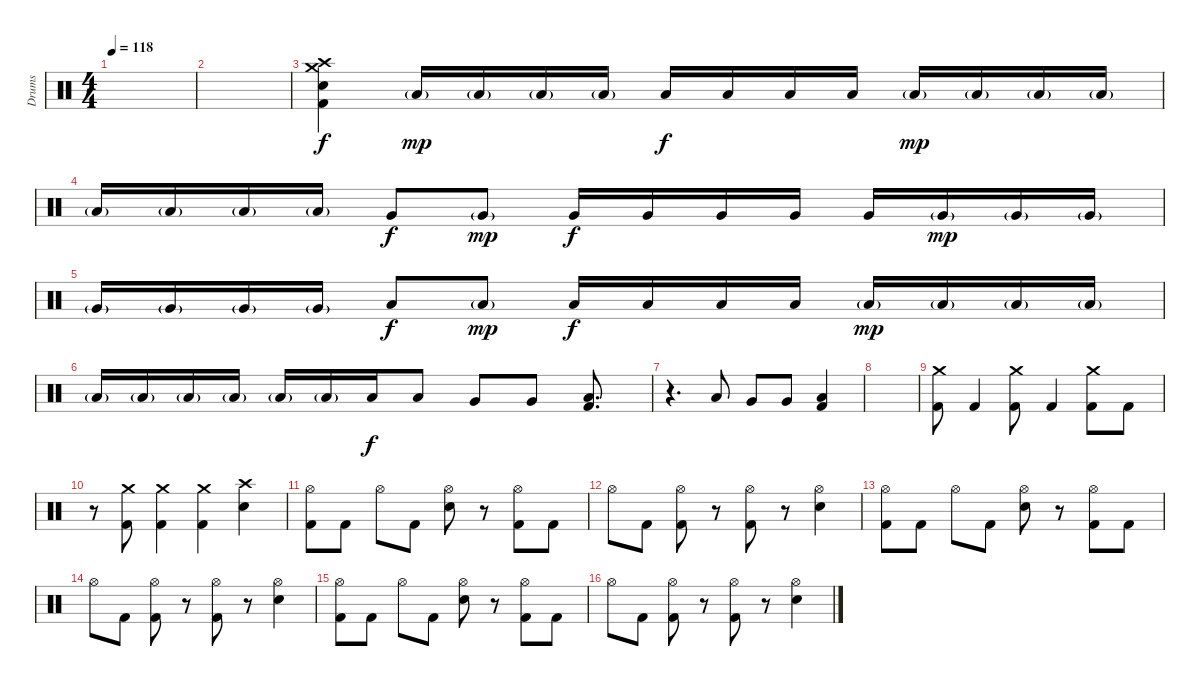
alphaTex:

\track ("Drums" "Drums") {instrument percussion}
\staff {score}
\articulation defaults
\ts (4 4)
\tempo 118
\clef neutral
\ks c
|
|
("Crash medium (hit)" "Crash high (hit)" "Electric Snare (hit)" "Kick (hit) 2").4 "Low Tom (hit)"{g}.16{dy mp} "Low Tom (hit)"{g}.16 "Low Tom (hit)"{g}.16 "Low Tom (hit)"{g}.16 "Low Tom (hit)".16{dy f} "Low Tom (hit)".16 "Low Tom (hit)".16 "Low Tom (hit)".16 "Low Tom (hit)"{g}.16{dy mp} "Low Tom (hit)"{g}.16 "Low Tom (hit)"{g}.16 "Low Tom (hit)"{g}.16 |
"Low Tom (hit)"{g}.16 "Low Tom (hit)"{g}.16 "Low Tom (hit)"{g}.16 "Low Tom (hit)"{g}.16 "Very Low Tom (hit)".8{dy f} "Very Low Tom (hit)"{g}.8{dy mp} "Very Low Tom (hit)".16{dy f} "Very Low Tom (hit)".16 "Very Low Tom (hit)".16 "Very Low Tom (hit)".16 "Very Low Tom (hit)".16 "Very Low Tom (hit)"{g}.16{dy mp} "Very Low Tom (hit)"{g}.16 "Very Low Tom (hit)"{g}.16 |
"Very Low Tom (hit)"{g}.16 "Very Low Tom (hit)"{g}.16 "Very Low Tom (hit)"{g}.16 "Very Low Tom (hit)"{g}.16 "Low Floor Tom (hit)".8{dy f} "Low Floor Tom (hit)"{g}.8{dy mp} "Low Floor Tom (hit)".16{dy f} "Low Floor Tom (hit)".16 "Low Floor Tom (hit)".16 "Low Floor Tom (hit)".16 "Low Floor Tom (hit)"{g}.16{dy mp} "Low Floor Tom (hit)"{g}.16 "Low Floor Tom (hit)"{g}.16 "Low Floor Tom (hit)"{g}.16 |
"Low Floor Tom (hit)"{g}.16 "Low Floor Tom (hit)"{g}.16 "Low Floor Tom (hit)"{g}.16 "Low Floor Tom (hit)"{g}.16 "Low Floor Tom (hit)"{g}.16 "Low Floor Tom (hit)"{g}.16 "Low Floor Tom (hit)".16{dy f} "Low Tom (hit)".8 "Very Low Tom (hit)".8 "Very Low Tom (hit)".8 ("Kick (hit) 2" "Low Floor Tom (hit)").8{d} |
r.4{d} "Low Tom (hit)".8 "Very Low Tom (hit)".8 "Very Low Tom (hit)".8 ("Kick (hit) 2" "Low Floor Tom (hit)").4 |
|
("Crash medium (hit)" "Kick (hit) 2").8 "Kick (hit) 2".4 ("Crash medium (hit)" "Kick (hit) 2").8 "Kick (hit) 2".4 ("Crash medium (hit)" "Kick (hit) 2").8 "Kick (hit) 2".8 |
r.8 ("Crash medium (hit)" "Kick (hit) 2").8 ("Crash medium (hit)" "Kick (hit) 2").4 ("Crash medium (hit)" "Kick (hit) 2").4 ("Crash high (hit)" "Electric Snare (hit)").4 |
("Hi-Hat (open)" "Kick (hit) 2").8 "Kick (hit) 2".8 "Hi-Hat (open)".8 "Kick (hit) 2".8 ("Hi-Hat (open)" "Electric Snare (hit)").8 r.8 ("Hi-Hat (open)" "Kick (hit) 2").8 "Kick (hit) 2".8 |
"Hi-Hat (open)".8 "Kick (hit) 2".8 ("Hi-Hat (open)" "Kick (hit) 2").8 r.8 ("Hi-Hat (open)" "Kick (hit) 2").8 r.8 ("Hi-Hat (open)" "Electric Snare (hit)").4 |
("Hi-Hat (open)" "Kick (hit) 2").8 "Kick (hit) 2".8 "Hi-Hat (open)".8 "Kick (hit) 2".8 ("Hi-Hat (open)" "Electric Snare (hit)").8 r.8 ("Hi-Hat (open)" "Kick (hit) 2").8 "Kick (hit) 2".8 |
"Hi-Hat (open)".8 "Kick (hit) 2".8 ("Hi-Hat (open)" "Kick (hit) 2").8 r.8 ("Hi-Hat (open)" "Kick (hit) 2").8 r.8 ("Hi-Hat (open)" "Electric Snare (hit)").4 |
("Hi-Hat (open)" "Kick (hit) 2").8 "Kick (hit) 2".8 "Hi-Hat (open)".8 "Kick (hit) 2".8 ("Hi-Hat (open)" "Electric Snare (hit)").8 r.8 ("Hi-Hat (open)" "Kick (hit) 2").8 "Kick (hit) 2".8 |
"Hi-Hat (open)".8 "Kick (hit) 2".8 ("Hi-Hat (open)" "Kick (hit) 2").8 r.8 ("Hi-Hat (open)" "Kick (hit) 2").8 r.8 ("Hi-Hat (open)" "Electric Snare (hit)").4
